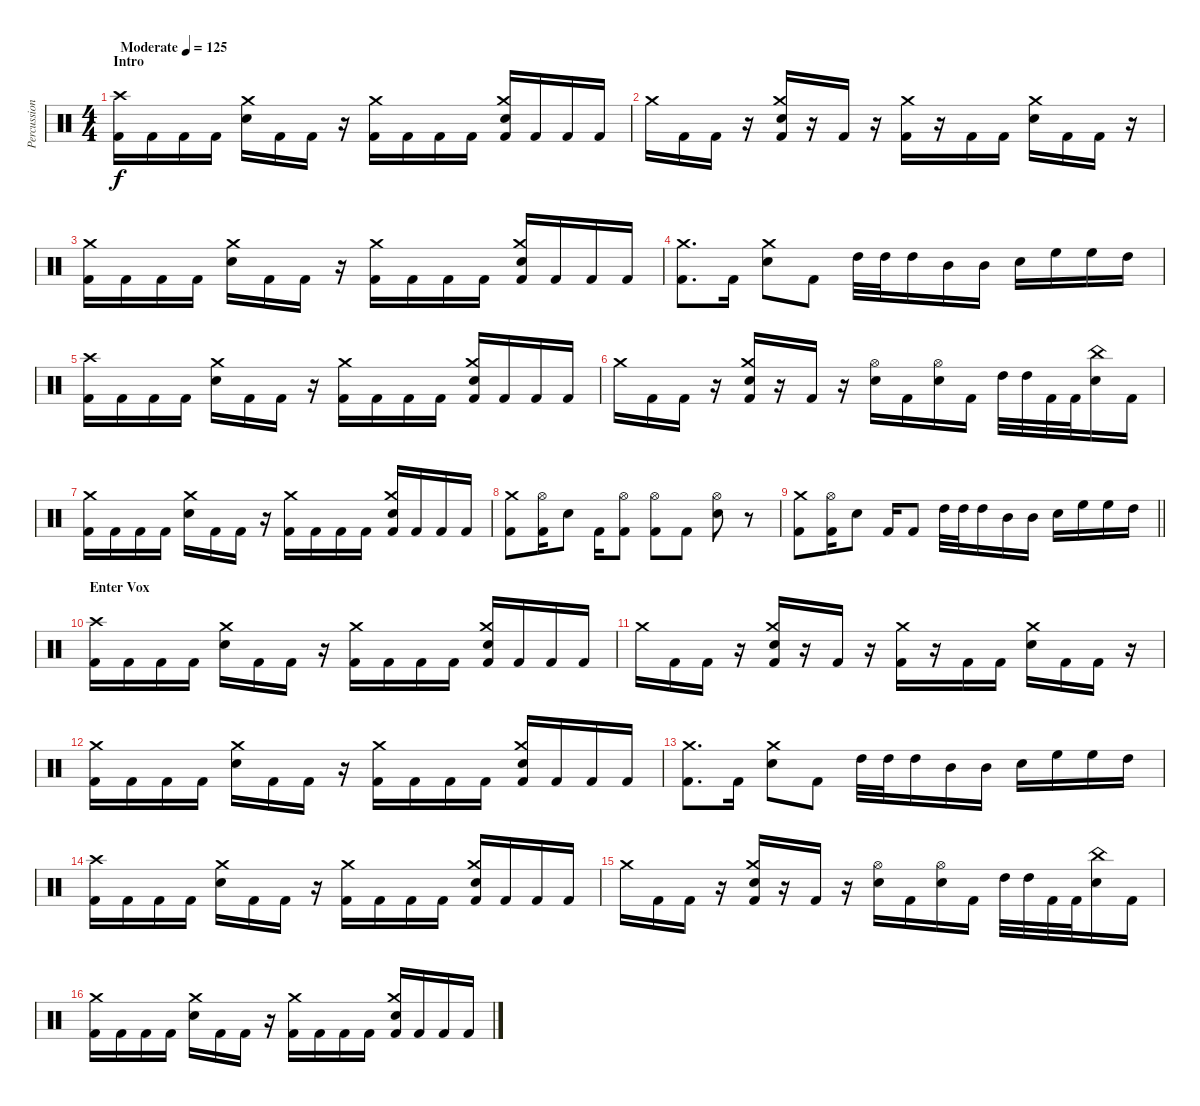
\track ("Percussion" "Percussion") {instrument percussion}
\staff {score}
\articulation defaults
\ts (4 4)
\section ("" "Intro")
\tempo (125 "Moderate")
\clef neutral
\ks c
("Crash high (hit)" "Kick (hit) 2").16{dy f} "Kick (hit) 2".16 "Kick (hit) 2".16 "Kick (hit) 2".16 ("Crash medium (hit)" "Snare (hit) 2").16 "Kick (hit) 2".16 "Kick (hit) 2".16 r.16 ("Crash medium (hit)" "Kick (hit) 2").16 "Kick (hit) 2".16 "Kick (hit) 2".16 "Kick (hit) 2".16 ("Crash medium (hit)" "Snare (hit) 2" "Kick (hit) 2").16 "Kick (hit) 2".16 "Kick (hit) 2".16 "Kick (hit) 2".16 |
"Crash medium (hit)".16 "Kick (hit) 2".16 "Kick (hit) 2".16 r.16 ("Crash medium (hit)" "Snare (hit) 2" "Kick (hit) 2").16 r.16 "Kick (hit) 2".16 r.16 ("Crash medium (hit)" "Kick (hit) 2").16 r.16 "Kick (hit) 2".16 "Kick (hit) 2".16 ("Crash medium (hit)" "Snare (hit) 2").16 "Kick (hit) 2".16 "Kick (hit) 2".16 r.16 |
("Crash medium (hit)" "Kick (hit) 2").16 "Kick (hit) 2".16 "Kick (hit) 2".16 "Kick (hit) 2".16 ("Crash medium (hit)" "Snare (hit) 2").16 "Kick (hit) 2".16 "Kick (hit) 2".16 r.16 ("Crash medium (hit)" "Kick (hit) 2").16 "Kick (hit) 2".16 "Kick (hit) 2".16 "Kick (hit) 2".16 ("Crash medium (hit)" "Snare (hit) 2" "Kick (hit) 2").16 "Kick (hit) 2".16 "Kick (hit) 2".16 "Kick (hit) 2".16 |
("Crash medium (hit)" "Kick (hit) 2").8{d} "Kick (hit) 2".16 ("Crash medium (hit)" "Snare (hit) 2").8 "Kick (hit) 2".8 "High Tom (hit)".32 "High Tom (hit)".32 "High Tom (hit)".16 "Mid Tom (hit)".16 "Mid Tom (hit)".16 "Snare (hit) 2".16 "High Floor Tom (hit)".16 "High Floor Tom (hit)".16 "High Tom (hit)".16 |
("Crash high (hit)" "Kick (hit) 2").16 "Kick (hit) 2".16 "Kick (hit) 2".16 "Kick (hit) 2".16 ("Crash medium (hit)" "Snare (hit) 2").16 "Kick (hit) 2".16 "Kick (hit) 2".16 r.16 ("Crash medium (hit)" "Kick (hit) 2").16 "Kick (hit) 2".16 "Kick (hit) 2".16 "Kick (hit) 2".16 ("Crash medium (hit)" "Snare (hit) 2" "Kick (hit) 2").16 "Kick (hit) 2".16 "Kick (hit) 2".16 "Kick (hit) 2".16 |
"Crash medium (hit)".16 "Kick (hit) 2".16 "Kick (hit) 2".16 r.16 ("Crash medium (hit)" "Snare (hit) 2" "Kick (hit) 2").16 r.16 "Kick (hit) 2".16 r.16 ("Hi-Hat (open)" "Snare (hit) 2").16 "Kick (hit) 2".16 ("Hi-Hat (open)" "Snare (hit) 2").16 "Kick (hit) 2".16 "High Tom (hit)".32 "High Tom (hit)".32 "Kick (hit) 2".32 "Kick (hit) 2".32 ("China (hit)" "Snare (hit) 2").16 "Kick (hit) 2".16 |
("Crash medium (hit)" "Kick (hit) 2").16 "Kick (hit) 2".16 "Kick (hit) 2".16 "Kick (hit) 2".16 ("Crash medium (hit)" "Snare (hit) 2").16 "Kick (hit) 2".16 "Kick (hit) 2".16 r.16 ("Crash medium (hit)" "Kick (hit) 2").16 "Kick (hit) 2".16 "Kick (hit) 2".16 "Kick (hit) 2".16 ("Crash medium (hit)" "Snare (hit) 2" "Kick (hit) 2").16 "Kick (hit) 2".16 "Kick (hit) 2".16 "Kick (hit) 2".16 |
("Crash medium (hit)" "Kick (hit) 2").8 ("Hi-Hat (open)" "Kick (hit) 2").16 "Snare (hit) 2".8 "Kick (hit) 2".16 ("Hi-Hat (open)" "Kick (hit) 2").8 ("Hi-Hat (open)" "Kick (hit) 2").8 "Kick (hit) 2".8 ("Hi-Hat (open)" "Snare (hit) 2").8 r.8 |
\barLineRight lightlight
("Crash medium (hit)" "Kick (hit) 2").8 ("Hi-Hat (open)" "Kick (hit) 2").16 "Snare (hit) 2".8 "Kick (hit) 2".16 "Kick (hit) 2".8 "High Tom (hit)".32 "High Tom (hit)".32 "High Tom (hit)".16 "Mid Tom (hit)".16 "Mid Tom (hit)".16 "Snare (hit) 2".16 "High Floor Tom (hit)".16 "High Floor Tom (hit)".16 "High Tom (hit)".16 |
\section ("" "Enter Vox")
("Crash high (hit)" "Kick (hit) 2").16 "Kick (hit) 2".16 "Kick (hit) 2".16 "Kick (hit) 2".16 ("Crash medium (hit)" "Snare (hit) 2").16 "Kick (hit) 2".16 "Kick (hit) 2".16 r.16 ("Crash medium (hit)" "Kick (hit) 2").16 "Kick (hit) 2".16 "Kick (hit) 2".16 "Kick (hit) 2".16 ("Crash medium (hit)" "Snare (hit) 2" "Kick (hit) 2").16 "Kick (hit) 2".16 "Kick (hit) 2".16 "Kick (hit) 2".16 |
"Crash medium (hit)".16 "Kick (hit) 2".16 "Kick (hit) 2".16 r.16 ("Crash medium (hit)" "Snare (hit) 2" "Kick (hit) 2").16 r.16 "Kick (hit) 2".16 r.16 ("Crash medium (hit)" "Kick (hit) 2").16 r.16 "Kick (hit) 2".16 "Kick (hit) 2".16 ("Crash medium (hit)" "Snare (hit) 2").16 "Kick (hit) 2".16 "Kick (hit) 2".16 r.16 |
("Crash medium (hit)" "Kick (hit) 2").16 "Kick (hit) 2".16 "Kick (hit) 2".16 "Kick (hit) 2".16 ("Crash medium (hit)" "Snare (hit) 2").16 "Kick (hit) 2".16 "Kick (hit) 2".16 r.16 ("Crash medium (hit)" "Kick (hit) 2").16 "Kick (hit) 2".16 "Kick (hit) 2".16 "Kick (hit) 2".16 ("Crash medium (hit)" "Snare (hit) 2" "Kick (hit) 2").16 "Kick (hit) 2".16 "Kick (hit) 2".16 "Kick (hit) 2".16 |
("Crash medium (hit)" "Kick (hit) 2").8{d} "Kick (hit) 2".16 ("Crash medium (hit)" "Snare (hit) 2").8 "Kick (hit) 2".8 "High Tom (hit)".32 "High Tom (hit)".32 "High Tom (hit)".16 "Mid Tom (hit)".16 "Mid Tom (hit)".16 "Snare (hit) 2".16 "High Floor Tom (hit)".16 "High Floor Tom (hit)".16 "High Tom (hit)".16 |
("Crash high (hit)" "Kick (hit) 2").16 "Kick (hit) 2".16 "Kick (hit) 2".16 "Kick (hit) 2".16 ("Crash medium (hit)" "Snare (hit) 2").16 "Kick (hit) 2".16 "Kick (hit) 2".16 r.16 ("Crash medium (hit)" "Kick (hit) 2").16 "Kick (hit) 2".16 "Kick (hit) 2".16 "Kick (hit) 2".16 ("Crash medium (hit)" "Snare (hit) 2" "Kick (hit) 2").16 "Kick (hit) 2".16 "Kick (hit) 2".16 "Kick (hit) 2".16 |
"Crash medium (hit)".16 "Kick (hit) 2".16 "Kick (hit) 2".16 r.16 ("Crash medium (hit)" "Snare (hit) 2" "Kick (hit) 2").16 r.16 "Kick (hit) 2".16 r.16 ("Hi-Hat (open)" "Snare (hit) 2").16 "Kick (hit) 2".16 ("Hi-Hat (open)" "Snare (hit) 2").16 "Kick (hit) 2".16 "High Tom (hit)".32 "High Tom (hit)".32 "Kick (hit) 2".32 "Kick (hit) 2".32 ("China (hit)" "Snare (hit) 2").16 "Kick (hit) 2".16 |
("Crash medium (hit)" "Kick (hit) 2").16 "Kick (hit) 2".16 "Kick (hit) 2".16 "Kick (hit) 2".16 ("Crash medium (hit)" "Snare (hit) 2").16 "Kick (hit) 2".16 "Kick (hit) 2".16 r.16 ("Crash medium (hit)" "Kick (hit) 2").16 "Kick (hit) 2".16 "Kick (hit) 2".16 "Kick (hit) 2".16 ("Crash medium (hit)" "Snare (hit) 2" "Kick (hit) 2").16 "Kick (hit) 2".16 "Kick (hit) 2".16 "Kick (hit) 2".16
